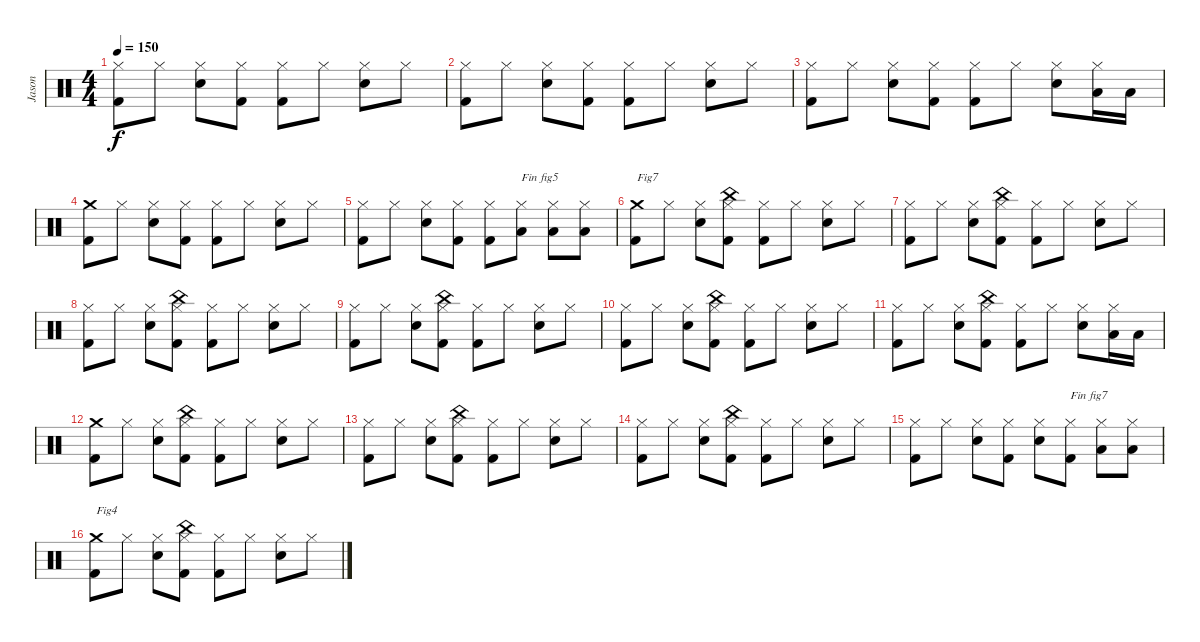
\track ("Jason" "Jason") {instrument percussion}
\staff {score}
\articulation defaults
\ts (4 4)
\tempo 150
\clef neutral
\ks c
("Kick (hit) 2" "Hi-Hat (closed)").8{dy f} "Hi-Hat (closed)".8 ("Electric Snare (hit)" "Hi-Hat (closed)").8 ("Kick (hit) 2" "Hi-Hat (closed)").8 ("Kick (hit) 2" "Hi-Hat (closed)").8 "Hi-Hat (closed)".8 ("Electric Snare (hit)" "Hi-Hat (closed)").8 "Hi-Hat (closed)".8 |
("Kick (hit) 2" "Hi-Hat (closed)").8 "Hi-Hat (closed)".8 ("Electric Snare (hit)" "Hi-Hat (closed)").8 ("Kick (hit) 2" "Hi-Hat (closed)").8 ("Kick (hit) 2" "Hi-Hat (closed)").8 "Hi-Hat (closed)".8 ("Electric Snare (hit)" "Hi-Hat (closed)").8 "Hi-Hat (closed)".8 |
("Kick (hit) 2" "Hi-Hat (closed)").8 "Hi-Hat (closed)".8 ("Electric Snare (hit)" "Hi-Hat (closed)").8 ("Kick (hit) 2" "Hi-Hat (closed)").8 ("Kick (hit) 2" "Hi-Hat (closed)").8 "Hi-Hat (closed)".8 ("Electric Snare (hit)" "Hi-Hat (closed)").8 ("Low Tom (hit)" "Hi-Hat (closed)").16 "Low Tom (hit)".16 |
("Kick (hit) 2" "Crash medium (hit)").8 "Hi-Hat (closed)".8 ("Electric Snare (hit)" "Hi-Hat (closed)").8 ("Kick (hit) 2" "Hi-Hat (closed)").8 ("Kick (hit) 2" "Hi-Hat (closed)").8 "Hi-Hat (closed)".8 ("Electric Snare (hit)" "Hi-Hat (closed)").8 "Hi-Hat (closed)".8 |
("Kick (hit) 2" "Hi-Hat (closed)").8 "Hi-Hat (closed)".8 ("Electric Snare (hit)" "Hi-Hat (closed)").8 ("Kick (hit) 2" "Hi-Hat (closed)").8 ("Kick (hit) 2" "Hi-Hat (closed)").8 ("Low Tom (hit)" "Hi-Hat (closed)").8{txt "Fin fig5"} ("Low Tom (hit)" "Hi-Hat (closed)").8 ("Low Tom (hit)" "Hi-Hat (closed)").8 |
("Kick (hit) 2" "Crash medium (hit)").8{txt "Fig7"} "Hi-Hat (closed)".8 ("Electric Snare (hit)" "Hi-Hat (closed)").8 ("Kick (hit) 2" "China (hit)" "Hi-Hat (closed)").8 ("Kick (hit) 2" "Hi-Hat (closed)").8 "Hi-Hat (closed)".8 ("Electric Snare (hit)" "Hi-Hat (closed)").8 "Hi-Hat (closed)".8 |
("Kick (hit) 2" "Hi-Hat (closed)").8 "Hi-Hat (closed)".8 ("Electric Snare (hit)" "Hi-Hat (closed)").8 ("Kick (hit) 2" "China (hit)" "Hi-Hat (closed)").8 ("Kick (hit) 2" "Hi-Hat (closed)").8 "Hi-Hat (closed)".8 ("Electric Snare (hit)" "Hi-Hat (closed)").8 "Hi-Hat (closed)".8 |
("Kick (hit) 2" "Hi-Hat (closed)").8 "Hi-Hat (closed)".8 ("Electric Snare (hit)" "Hi-Hat (closed)").8 ("Kick (hit) 2" "China (hit)" "Hi-Hat (closed)").8 ("Kick (hit) 2" "Hi-Hat (closed)").8 "Hi-Hat (closed)".8 ("Electric Snare (hit)" "Hi-Hat (closed)").8 "Hi-Hat (closed)".8 |
("Kick (hit) 2" "Hi-Hat (closed)").8 "Hi-Hat (closed)".8 ("Electric Snare (hit)" "Hi-Hat (closed)").8 ("Kick (hit) 2" "China (hit)" "Hi-Hat (closed)").8 ("Kick (hit) 2" "Hi-Hat (closed)").8 "Hi-Hat (closed)".8 ("Electric Snare (hit)" "Hi-Hat (closed)").8 "Hi-Hat (closed)".8 |
("Kick (hit) 2" "Hi-Hat (closed)").8 "Hi-Hat (closed)".8 ("Electric Snare (hit)" "Hi-Hat (closed)").8 ("Kick (hit) 2" "China (hit)" "Hi-Hat (closed)").8 ("Kick (hit) 2" "Hi-Hat (closed)").8 "Hi-Hat (closed)".8 ("Electric Snare (hit)" "Hi-Hat (closed)").8 "Hi-Hat (closed)".8 |
("Kick (hit) 2" "Hi-Hat (closed)").8 "Hi-Hat (closed)".8 ("Electric Snare (hit)" "Hi-Hat (closed)").8 ("Kick (hit) 2" "China (hit)" "Hi-Hat (closed)").8 ("Kick (hit) 2" "Hi-Hat (closed)").8 "Hi-Hat (closed)".8 ("Electric Snare (hit)" "Hi-Hat (closed)").8 ("Low Tom (hit)" "Hi-Hat (closed)").16 "Low Tom (hit)".16 |
("Kick (hit) 2" "Crash medium (hit)").8 "Hi-Hat (closed)".8 ("Electric Snare (hit)" "Hi-Hat (closed)").8 ("Kick (hit) 2" "China (hit)" "Hi-Hat (closed)").8 ("Kick (hit) 2" "Hi-Hat (closed)").8 "Hi-Hat (closed)".8 ("Electric Snare (hit)" "Hi-Hat (closed)").8 "Hi-Hat (closed)".8 |
("Kick (hit) 2" "Hi-Hat (closed)").8 "Hi-Hat (closed)".8 ("Electric Snare (hit)" "Hi-Hat (closed)").8 ("Kick (hit) 2" "China (hit)" "Hi-Hat (closed)").8 ("Kick (hit) 2" "Hi-Hat (closed)").8 "Hi-Hat (closed)".8 ("Electric Snare (hit)" "Hi-Hat (closed)").8 "Hi-Hat (closed)".8 |
("Kick (hit) 2" "Hi-Hat (closed)").8 "Hi-Hat (closed)".8 ("Electric Snare (hit)" "Hi-Hat (closed)").8 ("Kick (hit) 2" "China (hit)" "Hi-Hat (closed)").8 ("Kick (hit) 2" "Hi-Hat (closed)").8 "Hi-Hat (closed)".8 ("Electric Snare (hit)" "Hi-Hat (closed)").8 "Hi-Hat (closed)".8 |
("Kick (hit) 2" "Hi-Hat (closed)").8 "Hi-Hat (closed)".8 ("Electric Snare (hit)" "Hi-Hat (closed)").8 ("Kick (hit) 2" "Hi-Hat (closed)").8 ("Electric Snare (hit)" "Hi-Hat (closed)").8 ("Kick (hit) 2" "Hi-Hat (closed)").8{txt "Fin fig7"} ("Low Tom (hit)" "Hi-Hat (closed)").8 ("Low Tom (hit)" "Hi-Hat (closed)").8 |
("Kick (hit) 2" "Crash medium (hit)").8{txt "Fig4"} "Hi-Hat (closed)".8 ("Electric Snare (hit)" "Hi-Hat (closed)").8 ("Kick (hit) 2" "China (hit)" "Hi-Hat (closed)").8 ("Kick (hit) 2" "Hi-Hat (closed)").8 "Hi-Hat (closed)".8 ("Electric Snare (hit)" "Hi-Hat (closed)").8 "Hi-Hat (closed)".8
